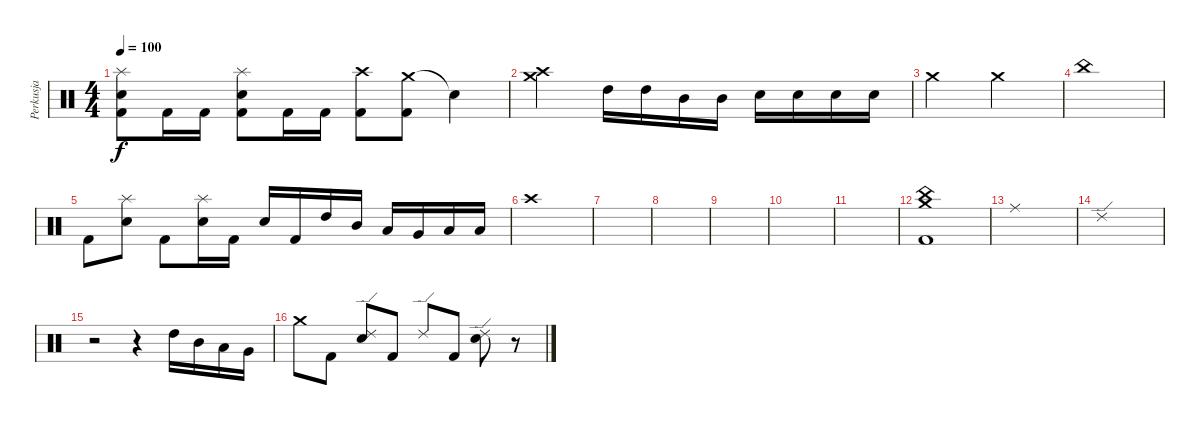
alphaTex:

\track ("Perkusja" "Perkusja") {instrument percussion}
\staff {score}
\articulation defaults
\ts (4 4)
\tempo 100
\clef neutral
\ks c
("Splash (hit)" "Electric Snare (hit)" "Kick (hit) 2").8{dy f} "Kick (hit) 2".16 "Kick (hit) 2".16 ("Splash (hit)" "Electric Snare (hit)" "Kick (hit) 2").8 "Kick (hit) 2".16 "Kick (hit) 2".16 ("Crash high (hit)" "Kick (hit) 2").8 ("Crash medium (hit)" "Kick (hit) 2").8 "Snare (hit)"{t}.4 |
("Crash medium (hit)" "Crash high (hit)").2 "High Tom (hit)".16 "High Tom (hit)".16 "Mid Tom (hit)".16 "Mid Tom (hit)".16 "Electric Snare (hit)".16 "Electric Snare (hit)".16 "Electric Snare (hit)".16 "Electric Snare (hit)".16 |
"Crash medium (hit)".2 "Crash medium (hit)".2 |
"China (hit)".1 |
"Kick (hit) 2".8 ("Splash (hit)" "Electric Snare (hit)").8 "Kick (hit) 2".8 ("Splash (hit)" "Electric Snare (hit)").16 "Kick (hit) 2".16 "Electric Snare (hit)".16 "Kick (hit) 2".16 "High Tom (hit)".16 "Mid Tom (hit)".16 "Low Tom (hit)".16 "Very Low Tom (hit)".16 "Low Floor Tom (hit)".16 "Low Floor Tom (hit)".16 |
"Crash high (hit)".1 |
|
|
|
|
|
("Crash medium (hit)" "China (hit)" "Kick (hit) 2").1 |
"Ride (middle)".1 |
"Ride (edge) 2".1 |
r.2 r.4 "High Tom (hit)".16 "Mid Tom (hit)".16 "Low Tom (hit)".16 "Very Low Tom (hit)".16 |
"Crash medium (hit)".8 "Kick (hit) 2".8 ("Ride (edge) 2" "Snare (hit) 2").8 "Kick (hit) 2".8 "Ride (edge) 2".8 "Kick (hit) 2".8 ("Ride (edge) 2" "Snare (hit) 2").8 r.8
